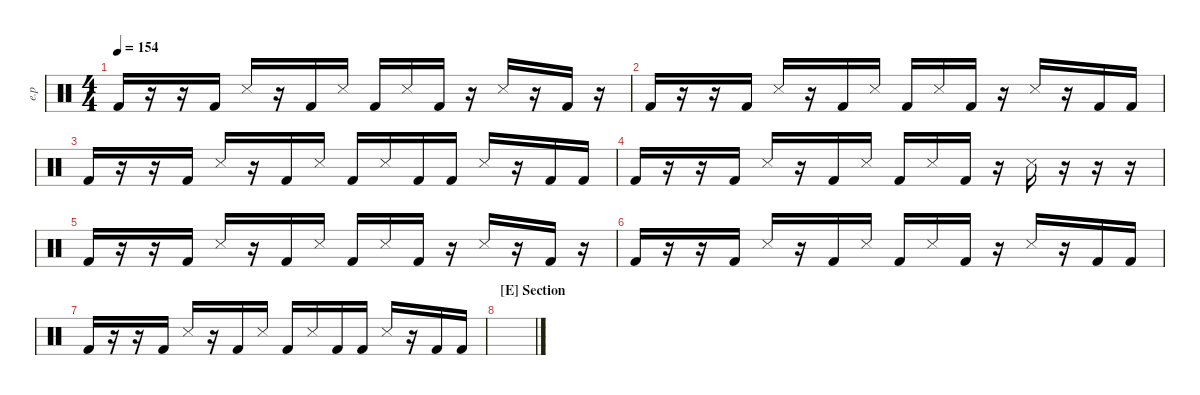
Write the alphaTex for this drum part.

\defaultSystemsLayout 4
\hideDynamics
\bracketExtendMode nobrackets
\otherSystemsTrackNameOrientation horizontal
\track ("Electric Percussion" "e.p") {instrument percussion}
\staff {score}
\articulation defaults
\ts (4 4)
\tempo 154
\clef neutral
\ks c "Kick (hit) 2".16{dy mf beam Up}
r.16{beam Up} r.16{beam Up} "Kick (hit) 2".16{beam Up} "Snare (side stick) 3".16{beam Up} r.16{beam Up} "Kick (hit) 2".16{beam Up} "Snare (side stick) 3".16{beam Up} "Kick (hit) 2".16{beam Up} "Snare (side stick) 3".16{beam Up} "Kick (hit) 2".16{beam Up} r.16{beam Up} "Snare (side stick) 3".16{beam Up} r.16{beam Up} "Kick (hit) 2".16{beam Up} r.16{beam Up} |
"Kick (hit) 2".16{beam Up} r.16{beam Up} r.16{beam Up} "Kick (hit) 2".16{beam Up} "Snare (side stick) 3".16{beam Up} r.16{beam Up} "Kick (hit) 2".16{beam Up} "Snare (side stick) 3".16{beam Up} "Kick (hit) 2".16{beam Up} "Snare (side stick) 3".16{beam Up} "Kick (hit) 2".16{beam Up} r.16{beam Up} "Snare (side stick) 3".16{beam Up} r.16{beam Up} "Kick (hit) 2".16{beam Up} "Kick (hit) 2".16{beam Up} |
"Kick (hit) 2".16{beam Up} r.16{beam Up} r.16{beam Up} "Kick (hit) 2".16{beam Up} "Snare (side stick) 3".16{beam Up} r.16{beam Up} "Kick (hit) 2".16{beam Up} "Snare (side stick) 3".16{beam Up} "Kick (hit) 2".16{beam Up} "Snare (side stick) 3".16{beam Up} "Kick (hit) 2".16{beam Up} "Kick (hit) 2".16{beam Up} "Snare (side stick) 3".16{beam Up} r.16{beam Up} "Kick (hit) 2".16{beam Up} "Kick (hit) 2".16{beam Up} |
"Kick (hit) 2".16{beam Up} r.16{beam Up} r.16{beam Up} "Kick (hit) 2".16{beam Up} "Snare (side stick) 3".16{beam Up} r.16{beam Up} "Kick (hit) 2".16{beam Up} "Snare (side stick) 3".16{beam Up} "Kick (hit) 2".16{beam Up} "Snare (side stick) 3".16{beam Up} "Kick (hit) 2".16{beam Up} r.16{beam Up} "Snare (side stick) 3".16{beam Down} r.16{beam Down} r.16{beam Down} r.16{beam Down} |
"Kick (hit) 2".16{beam Up} r.16{beam Up} r.16{beam Up} "Kick (hit) 2".16{beam Up} "Snare (side stick) 3".16{beam Up} r.16{beam Up} "Kick (hit) 2".16{beam Up} "Snare (side stick) 3".16{beam Up} "Kick (hit) 2".16{beam Up} "Snare (side stick) 3".16{beam Up} "Kick (hit) 2".16{beam Up} r.16{beam Up} "Snare (side stick) 3".16{beam Up} r.16{beam Up} "Kick (hit) 2".16{beam Up} r.16{beam Up} |
"Kick (hit) 2".16{beam Up} r.16{beam Up} r.16{beam Up} "Kick (hit) 2".16{beam Up} "Snare (side stick) 3".16{beam Up} r.16{beam Up} "Kick (hit) 2".16{beam Up} "Snare (side stick) 3".16{beam Up} "Kick (hit) 2".16{beam Up} "Snare (side stick) 3".16{beam Up} "Kick (hit) 2".16{beam Up} r.16{beam Up} "Snare (side stick) 3".16{beam Up} r.16{beam Up} "Kick (hit) 2".16{beam Up} "Kick (hit) 2".16{beam Up} |
"Kick (hit) 2".16{beam Up} r.16{beam Up} r.16{beam Up} "Kick (hit) 2".16{beam Up} "Snare (side stick) 3".16{beam Up} r.16{beam Up} "Kick (hit) 2".16{beam Up} "Snare (side stick) 3".16{beam Up} "Kick (hit) 2".16{beam Up} "Snare (side stick) 3".16{beam Up} "Kick (hit) 2".16{beam Up} "Kick (hit) 2".16{beam Up} "Snare (side stick) 3".16{beam Up} r.16{beam Up} "Kick (hit) 2".16{beam Up} "Kick (hit) 2".16{beam Up} |
\section ("E" "Section")
